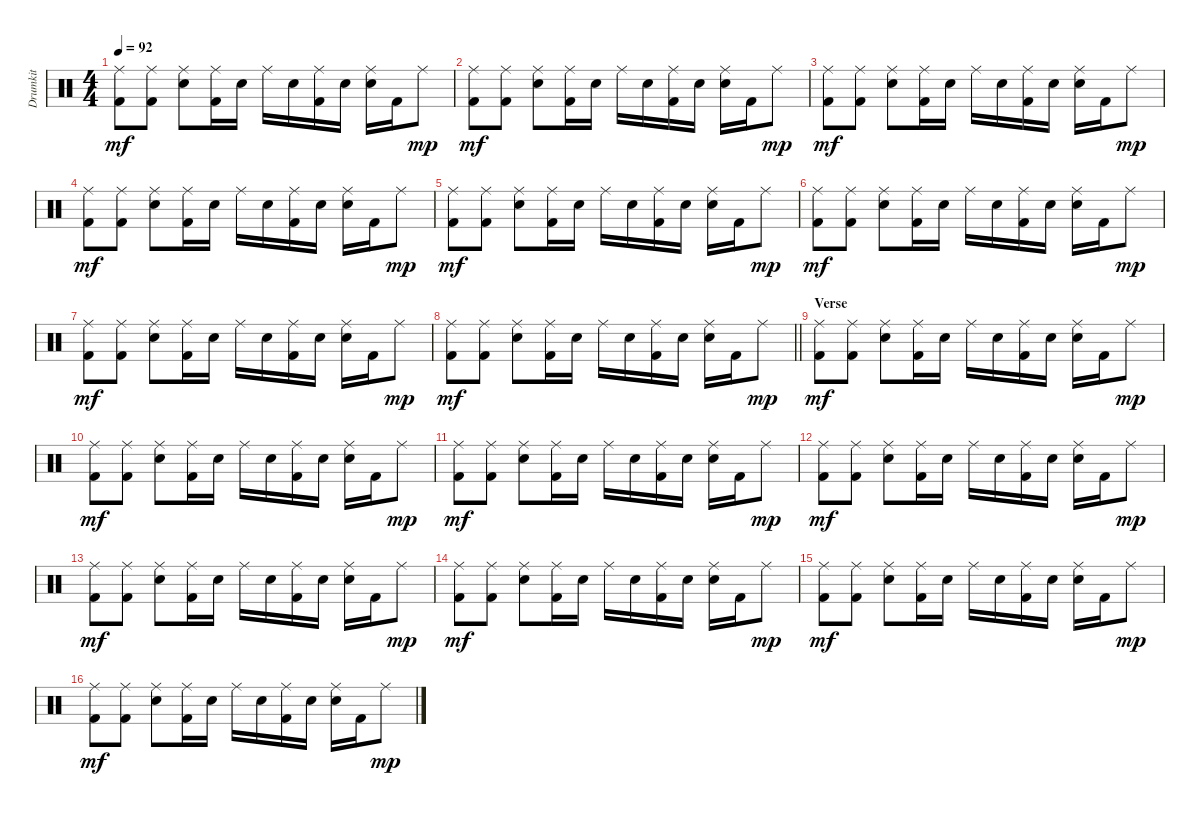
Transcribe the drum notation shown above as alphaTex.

\track ("Drumkit" "Drumkit") {instrument percussion}
\staff {score}
\articulation defaults
\ts (4 4)
\tempo 92
\clef neutral
\ks c
("Ride (middle)" "Kick (hit) 2").8{dy mf} ("Ride (middle)" "Kick (hit) 2").8 ("Ride (middle)" "Snare (hit) 2").8 ("Ride (middle)" "Kick (hit) 2").16 "Snare (hit) 2".16 "Ride (middle)".16 "Snare (hit) 2".16 ("Ride (middle)" "Kick (hit) 2").16 "Snare (hit) 2".16 ("Ride (middle)" "Snare (hit) 2").16 "Kick (hit) 2".16 "Ride (middle)".8{dy mp} |
("Ride (middle)" "Kick (hit) 2").8{dy mf} ("Ride (middle)" "Kick (hit) 2").8 ("Ride (middle)" "Snare (hit) 2").8 ("Ride (middle)" "Kick (hit) 2").16 "Snare (hit) 2".16 "Ride (middle)".16 "Snare (hit) 2".16 ("Ride (middle)" "Kick (hit) 2").16 "Snare (hit) 2".16 ("Ride (middle)" "Snare (hit) 2").16 "Kick (hit) 2".16 "Ride (middle)".8{dy mp} |
("Ride (middle)" "Kick (hit) 2").8{dy mf} ("Ride (middle)" "Kick (hit) 2").8 ("Ride (middle)" "Snare (hit) 2").8 ("Ride (middle)" "Kick (hit) 2").16 "Snare (hit) 2".16 "Ride (middle)".16 "Snare (hit) 2".16 ("Ride (middle)" "Kick (hit) 2").16 "Snare (hit) 2".16 ("Ride (middle)" "Snare (hit) 2").16 "Kick (hit) 2".16 "Ride (middle)".8{dy mp} |
("Ride (middle)" "Kick (hit) 2").8{dy mf} ("Ride (middle)" "Kick (hit) 2").8 ("Ride (middle)" "Snare (hit) 2").8 ("Ride (middle)" "Kick (hit) 2").16 "Snare (hit) 2".16 "Ride (middle)".16 "Snare (hit) 2".16 ("Ride (middle)" "Kick (hit) 2").16 "Snare (hit) 2".16 ("Ride (middle)" "Snare (hit) 2").16 "Kick (hit) 2".16 "Ride (middle)".8{dy mp} |
("Ride (middle)" "Kick (hit) 2").8{dy mf} ("Ride (middle)" "Kick (hit) 2").8 ("Ride (middle)" "Snare (hit) 2").8 ("Ride (middle)" "Kick (hit) 2").16 "Snare (hit) 2".16 "Ride (middle)".16 "Snare (hit) 2".16 ("Ride (middle)" "Kick (hit) 2").16 "Snare (hit) 2".16 ("Ride (middle)" "Snare (hit) 2").16 "Kick (hit) 2".16 "Ride (middle)".8{dy mp} |
("Ride (middle)" "Kick (hit) 2").8{dy mf} ("Ride (middle)" "Kick (hit) 2").8 ("Ride (middle)" "Snare (hit) 2").8 ("Ride (middle)" "Kick (hit) 2").16 "Snare (hit) 2".16 "Ride (middle)".16 "Snare (hit) 2".16 ("Ride (middle)" "Kick (hit) 2").16 "Snare (hit) 2".16 ("Ride (middle)" "Snare (hit) 2").16 "Kick (hit) 2".16 "Ride (middle)".8{dy mp} |
("Ride (middle)" "Kick (hit) 2").8{dy mf} ("Ride (middle)" "Kick (hit) 2").8 ("Ride (middle)" "Snare (hit) 2").8 ("Ride (middle)" "Kick (hit) 2").16 "Snare (hit) 2".16 "Ride (middle)".16 "Snare (hit) 2".16 ("Ride (middle)" "Kick (hit) 2").16 "Snare (hit) 2".16 ("Ride (middle)" "Snare (hit) 2").16 "Kick (hit) 2".16 "Ride (middle)".8{dy mp} |
\barLineRight lightlight
("Ride (middle)" "Kick (hit) 2").8{dy mf} ("Ride (middle)" "Kick (hit) 2").8 ("Ride (middle)" "Snare (hit) 2").8 ("Ride (middle)" "Kick (hit) 2").16 "Snare (hit) 2".16 "Ride (middle)".16 "Snare (hit) 2".16 ("Ride (middle)" "Kick (hit) 2").16 "Snare (hit) 2".16 ("Ride (middle)" "Snare (hit) 2").16 "Kick (hit) 2".16 "Ride (middle)".8{dy mp} |
\section ("" "Verse")
("Ride (middle)" "Kick (hit) 2").8{dy mf} ("Ride (middle)" "Kick (hit) 2").8 ("Ride (middle)" "Snare (hit) 2").8 ("Ride (middle)" "Kick (hit) 2").16 "Snare (hit) 2".16 "Ride (middle)".16 "Snare (hit) 2".16 ("Ride (middle)" "Kick (hit) 2").16 "Snare (hit) 2".16 ("Ride (middle)" "Snare (hit) 2").16 "Kick (hit) 2".16 "Ride (middle)".8{dy mp} |
("Ride (middle)" "Kick (hit) 2").8{dy mf} ("Ride (middle)" "Kick (hit) 2").8 ("Ride (middle)" "Snare (hit) 2").8 ("Ride (middle)" "Kick (hit) 2").16 "Snare (hit) 2".16 "Ride (middle)".16 "Snare (hit) 2".16 ("Ride (middle)" "Kick (hit) 2").16 "Snare (hit) 2".16 ("Ride (middle)" "Snare (hit) 2").16 "Kick (hit) 2".16 "Ride (middle)".8{dy mp} |
("Ride (middle)" "Kick (hit) 2").8{dy mf} ("Ride (middle)" "Kick (hit) 2").8 ("Ride (middle)" "Snare (hit) 2").8 ("Ride (middle)" "Kick (hit) 2").16 "Snare (hit) 2".16 "Ride (middle)".16 "Snare (hit) 2".16 ("Ride (middle)" "Kick (hit) 2").16 "Snare (hit) 2".16 ("Ride (middle)" "Snare (hit) 2").16 "Kick (hit) 2".16 "Ride (middle)".8{dy mp} |
("Ride (middle)" "Kick (hit) 2").8{dy mf} ("Ride (middle)" "Kick (hit) 2").8 ("Ride (middle)" "Snare (hit) 2").8 ("Ride (middle)" "Kick (hit) 2").16 "Snare (hit) 2".16 "Ride (middle)".16 "Snare (hit) 2".16 ("Ride (middle)" "Kick (hit) 2").16 "Snare (hit) 2".16 ("Ride (middle)" "Snare (hit) 2").16 "Kick (hit) 2".16 "Ride (middle)".8{dy mp} |
("Ride (middle)" "Kick (hit) 2").8{dy mf} ("Ride (middle)" "Kick (hit) 2").8 ("Ride (middle)" "Snare (hit) 2").8 ("Ride (middle)" "Kick (hit) 2").16 "Snare (hit) 2".16 "Ride (middle)".16 "Snare (hit) 2".16 ("Ride (middle)" "Kick (hit) 2").16 "Snare (hit) 2".16 ("Ride (middle)" "Snare (hit) 2").16 "Kick (hit) 2".16 "Ride (middle)".8{dy mp} |
("Ride (middle)" "Kick (hit) 2").8{dy mf} ("Ride (middle)" "Kick (hit) 2").8 ("Ride (middle)" "Snare (hit) 2").8 ("Ride (middle)" "Kick (hit) 2").16 "Snare (hit) 2".16 "Ride (middle)".16 "Snare (hit) 2".16 ("Ride (middle)" "Kick (hit) 2").16 "Snare (hit) 2".16 ("Ride (middle)" "Snare (hit) 2").16 "Kick (hit) 2".16 "Ride (middle)".8{dy mp} |
("Ride (middle)" "Kick (hit) 2").8{dy mf} ("Ride (middle)" "Kick (hit) 2").8 ("Ride (middle)" "Snare (hit) 2").8 ("Ride (middle)" "Kick (hit) 2").16 "Snare (hit) 2".16 "Ride (middle)".16 "Snare (hit) 2".16 ("Ride (middle)" "Kick (hit) 2").16 "Snare (hit) 2".16 ("Ride (middle)" "Snare (hit) 2").16 "Kick (hit) 2".16 "Ride (middle)".8{dy mp} |
("Ride (middle)" "Kick (hit) 2").8{dy mf} ("Ride (middle)" "Kick (hit) 2").8 ("Ride (middle)" "Snare (hit) 2").8 ("Ride (middle)" "Kick (hit) 2").16 "Snare (hit) 2".16 "Ride (middle)".16 "Snare (hit) 2".16 ("Ride (middle)" "Kick (hit) 2").16 "Snare (hit) 2".16 ("Ride (middle)" "Snare (hit) 2").16 "Kick (hit) 2".16 "Ride (middle)".8{dy mp}
